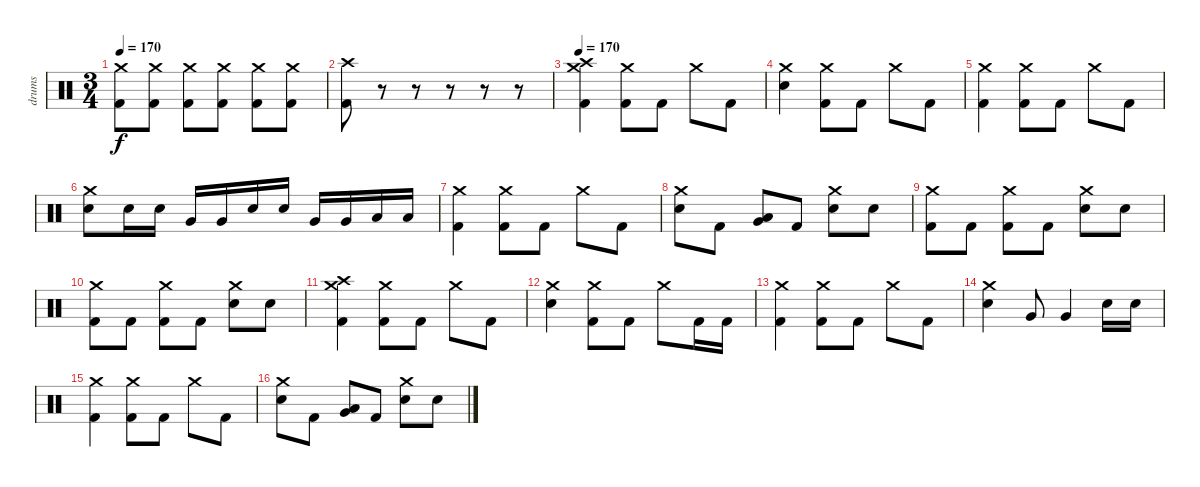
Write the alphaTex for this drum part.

\track ("drums" "drums") {instrument percussion}
\staff {score}
\articulation defaults
\ts (3 4)
\tempo 170
\clef neutral
\ks c
("Kick (hit) 2" "Crash medium (hit)").8{dy f} ("Kick (hit) 2" "Crash medium (hit)").8 ("Kick (hit) 2" "Crash medium (hit)").8 ("Kick (hit) 2" "Crash medium (hit)").8 ("Kick (hit) 2" "Crash medium (hit)").8 ("Kick (hit) 2" "Crash medium (hit)").8 |
("Kick (hit) 2" "Crash high (hit)").8 r.8 r.8 r.8 r.8 r.8 |
\tempo 170
("Kick (hit) 2" "Crash high (hit)" "Crash medium (hit)").4 ("Kick (hit) 2" "Crash medium (hit)").8 "Kick (hit) 2".8 "Crash medium (hit)".8 "Kick (hit) 2".8 |
("Snare (hit) 2" "Crash medium (hit)").4 ("Kick (hit) 2" "Crash medium (hit)").8 "Kick (hit) 2".8 "Crash medium (hit)".8 "Kick (hit) 2".8 |
("Kick (hit) 2" "Crash medium (hit)").4 ("Kick (hit) 2" "Crash medium (hit)").8 "Kick (hit) 2".8 "Crash medium (hit)".8 "Kick (hit) 2".8 |
("Snare (hit) 2" "Crash medium (hit)").8 "Snare (hit) 2".16 "Snare (hit) 2".16 "Very Low Tom (hit)".16 "Very Low Tom (hit)".16 "Snare (hit) 2".16 "Snare (hit) 2".16 "Very Low Tom (hit)".16 "Very Low Tom (hit)".16 "Low Tom (hit)".16 "Low Tom (hit)".16 |
("Kick (hit) 2" "Crash medium (hit)").4 ("Kick (hit) 2" "Crash medium (hit)").8 "Kick (hit) 2".8 "Crash medium (hit)".8 "Kick (hit) 2".8 |
("Snare (hit) 2" "Crash medium (hit)").8 "Kick (hit) 2".8 ("Very Low Tom (hit)" "Low Tom (hit)").8 "Kick (hit) 2".8 ("Snare (hit) 2" "Crash medium (hit)").8 "Snare (hit) 2".8 |
("Kick (hit) 2" "Crash medium (hit)").8 "Kick (hit) 2".8 ("Kick (hit) 2" "Crash medium (hit)").8 "Kick (hit) 2".8 ("Snare (hit) 2" "Crash medium (hit)").8 "Snare (hit) 2".8 |
("Kick (hit) 2" "Crash medium (hit)").8 "Kick (hit) 2".8 ("Kick (hit) 2" "Crash medium (hit)").8 "Kick (hit) 2".8 ("Snare (hit) 2" "Crash medium (hit)").8 "Snare (hit) 2".8 |
("Kick (hit) 2" "Crash medium (hit)" "Crash high (hit)").4 ("Kick (hit) 2" "Crash medium (hit)").8 "Kick (hit) 2".8 "Crash medium (hit)".8 "Kick (hit) 2".8 |
("Snare (hit) 2" "Crash medium (hit)").4 ("Kick (hit) 2" "Crash medium (hit)").8 "Kick (hit) 2".8 "Crash medium (hit)".8 "Kick (hit) 2".16 "Kick (hit) 2".16 |
("Kick (hit) 2" "Crash medium (hit)").4 ("Kick (hit) 2" "Crash medium (hit)").8 "Kick (hit) 2".8 "Crash medium (hit)".8 "Kick (hit) 2".8 |
("Snare (hit) 2" "Crash medium (hit)").4 "Very Low Tom (hit)".8 "Very Low Tom (hit)".4 "Snare (hit) 2".16 "Snare (hit) 2".16 |
("Kick (hit) 2" "Crash medium (hit)").4 ("Kick (hit) 2" "Crash medium (hit)").8 "Kick (hit) 2".8 "Crash medium (hit)".8 "Kick (hit) 2".8 |
("Snare (hit) 2" "Crash medium (hit)").8 "Kick (hit) 2".8 ("Very Low Tom (hit)" "Low Tom (hit)").8 "Kick (hit) 2".8 ("Snare (hit) 2" "Crash medium (hit)").8 "Snare (hit) 2".8
